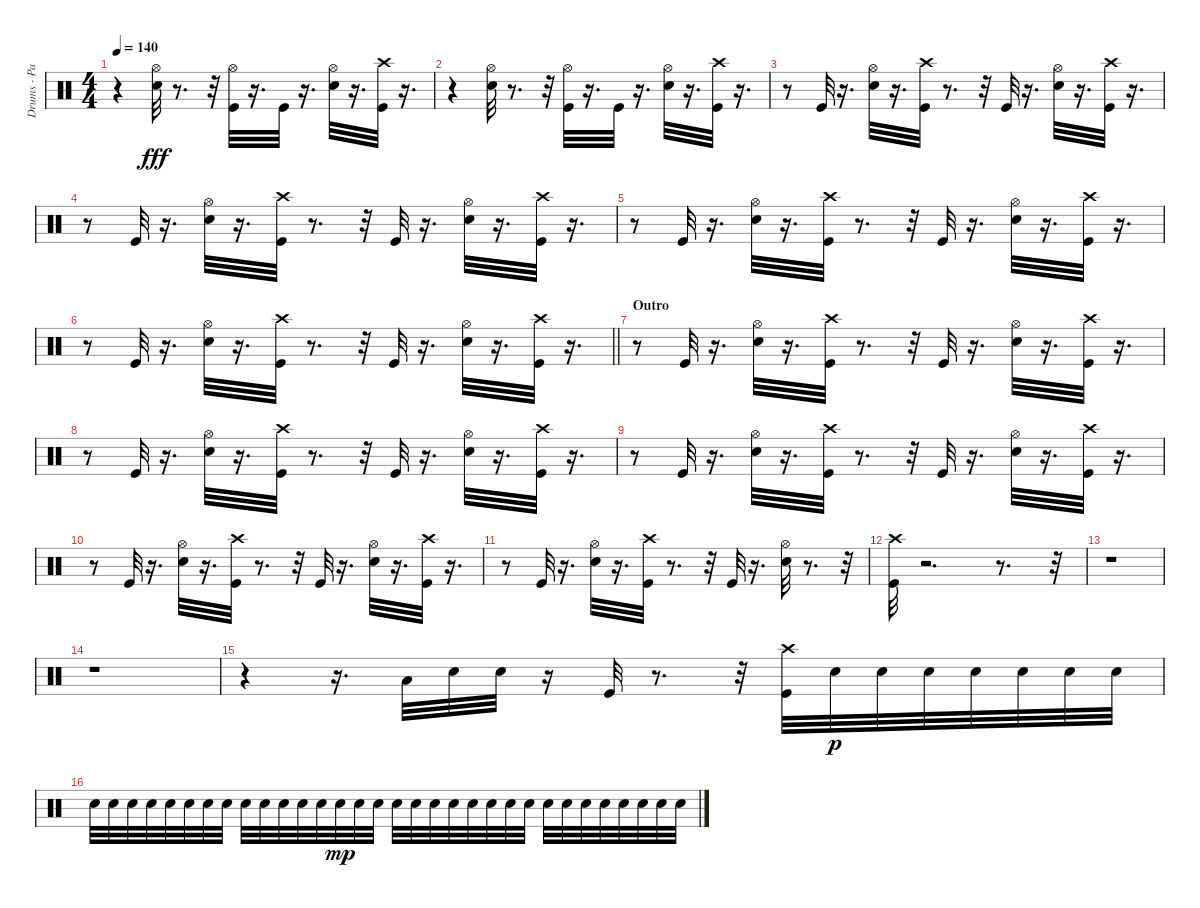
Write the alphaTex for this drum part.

\track ("Drums - Paice" "Drums - Pa") {instrument percussion}
\staff {score}
\articulation defaults
\ts (4 4)
\tempo 140
\clef neutral
\ks c
r.4{dy fff} ("Hi-Hat (open)" "Snare (hit) 2").32 r.8{d} r.32 ("Kick (hit)" "Hi-Hat (open)").32 r.16{d} "Kick (hit)".32 r.16{d} ("Snare (hit) 2" "Hi-Hat (open)").32 r.16{d} ("Crash high (hit)" "Kick (hit)").32 r.16{d} |
r.4 ("Hi-Hat (open)" "Snare (hit) 2").32 r.8{d} r.32 ("Kick (hit)" "Hi-Hat (open)").32 r.16{d} "Kick (hit)".32 r.16{d} ("Snare (hit) 2" "Hi-Hat (open)").32 r.16{d} ("Kick (hit)" "Crash high (hit)").32 r.16{d} |
r.8 "Kick (hit)".32 r.16{d} ("Hi-Hat (open)" "Snare (hit) 2").32 r.16{d} ("Kick (hit)" "Crash high (hit)").32 r.8{d} r.32 "Kick (hit)".32 r.16{d} ("Snare (hit) 2" "Hi-Hat (open)").32 r.16{d} ("Kick (hit)" "Crash high (hit)").32 r.16{d} |
r.8 "Kick (hit)".32 r.16{d} ("Snare (hit) 2" "Hi-Hat (open)").32 r.16{d} ("Crash high (hit)" "Kick (hit)").32 r.8{d} r.32 "Kick (hit)".32 r.16{d} ("Snare (hit) 2" "Hi-Hat (open)").32 r.16{d} ("Crash high (hit)" "Kick (hit)").32 r.16{d} |
r.8 "Kick (hit)".32 r.16{d} ("Snare (hit) 2" "Hi-Hat (open)").32 r.16{d} ("Kick (hit)" "Crash high (hit)").32 r.8{d} r.32 "Kick (hit)".32 r.16{d} ("Hi-Hat (open)" "Snare (hit) 2").32 r.16{d} ("Crash high (hit)" "Kick (hit)").32 r.16{d} |
\barLineRight lightlight
r.8 "Kick (hit)".32 r.16{d} ("Hi-Hat (open)" "Snare (hit) 2").32 r.16{d} ("Kick (hit)" "Crash high (hit)").32 r.8{d} r.32 "Kick (hit)".32 r.16{d} ("Snare (hit) 2" "Hi-Hat (open)").32 r.16{d} ("Crash high (hit)" "Kick (hit)").32 r.16{d} |
\section ("" "Outro")
r.8 "Kick (hit)".32 r.16{d} ("Snare (hit) 2" "Hi-Hat (open)").32 r.16{d} ("Crash high (hit)" "Kick (hit)").32 r.8{d} r.32 "Kick (hit)".32 r.16{d} ("Snare (hit) 2" "Hi-Hat (open)").32 r.16{d} ("Crash high (hit)" "Kick (hit)").32 r.16{d} |
r.8 "Kick (hit)".32 r.16{d} ("Snare (hit) 2" "Hi-Hat (open)").32 r.16{d} ("Kick (hit)" "Crash high (hit)").32 r.8{d} r.32 "Kick (hit)".32 r.16{d} ("Snare (hit) 2" "Hi-Hat (open)").32 r.16{d} ("Kick (hit)" "Crash high (hit)").32 r.16{d} |
r.8 "Kick (hit)".32 r.16{d} ("Hi-Hat (open)" "Snare (hit) 2").32 r.16{d} ("Crash high (hit)" "Kick (hit)").32 r.8{d} r.32 "Kick (hit)".32 r.16{d} ("Snare (hit) 2" "Hi-Hat (open)").32 r.16{d} ("Kick (hit)" "Crash high (hit)").32 r.16{d} |
r.8 "Kick (hit)".32 r.16{d} ("Snare (hit) 2" "Hi-Hat (open)").32 r.16{d} ("Kick (hit)" "Crash high (hit)").32 r.8{d} r.32 "Kick (hit)".32 r.16{d} ("Hi-Hat (open)" "Snare (hit) 2").32 r.16{d} ("Crash high (hit)" "Kick (hit)").32 r.16{d} |
r.8 "Kick (hit)".32 r.16{d} ("Hi-Hat (open)" "Snare (hit) 2").32 r.16{d} ("Crash high (hit)" "Kick (hit)").32 r.8{d} r.32 "Kick (hit)".32 r.16{d} ("Hi-Hat (open)" "Snare (hit) 2").32 r.8{d} r.32 |
("Crash high (hit)" "Kick (hit)").32 r.2{d} r.8{d} r.32 |
r.1 |
r.1 |
r.4 r.16{d} "Low Tom (hit)".32 "Snare (hit) 2".32 "Snare (hit) 2".32 r.16 "Kick (hit)".32 r.8{d} r.32 ("Kick (hit)" "Crash high (hit)").32 "Snare (hit) 2".32{dy p} "Snare (hit) 2".32 "Snare (hit) 2".32 "Snare (hit) 2".32 "Snare (hit) 2".32 "Snare (hit) 2".32 "Snare (hit) 2".32 |
"Snare (hit) 2".32 "Snare (hit) 2".32 "Snare (hit) 2".32 "Snare (hit) 2".32 "Snare (hit) 2".32 "Snare (hit) 2".32 "Snare (hit) 2".32 "Snare (hit) 2".32 "Snare (hit) 2".32 "Snare (hit) 2".32 "Snare (hit) 2".32 "Snare (hit) 2".32 "Snare (hit) 2".32 "Snare (hit) 2".32{dy mp} "Snare (hit) 2".32 "Snare (hit) 2".32 "Snare (hit) 2".32 "Snare (hit) 2".32 "Snare (hit) 2".32 "Snare (hit) 2".32 "Snare (hit) 2".32 "Snare (hit) 2".32 "Snare (hit) 2".32 "Snare (hit) 2".32 "Snare (hit) 2".32 "Snare (hit) 2".32 "Snare (hit) 2".32 "Snare (hit) 2".32 "Snare (hit) 2".32 "Snare (hit) 2".32 "Snare (hit) 2".32 "Snare (hit) 2".32
